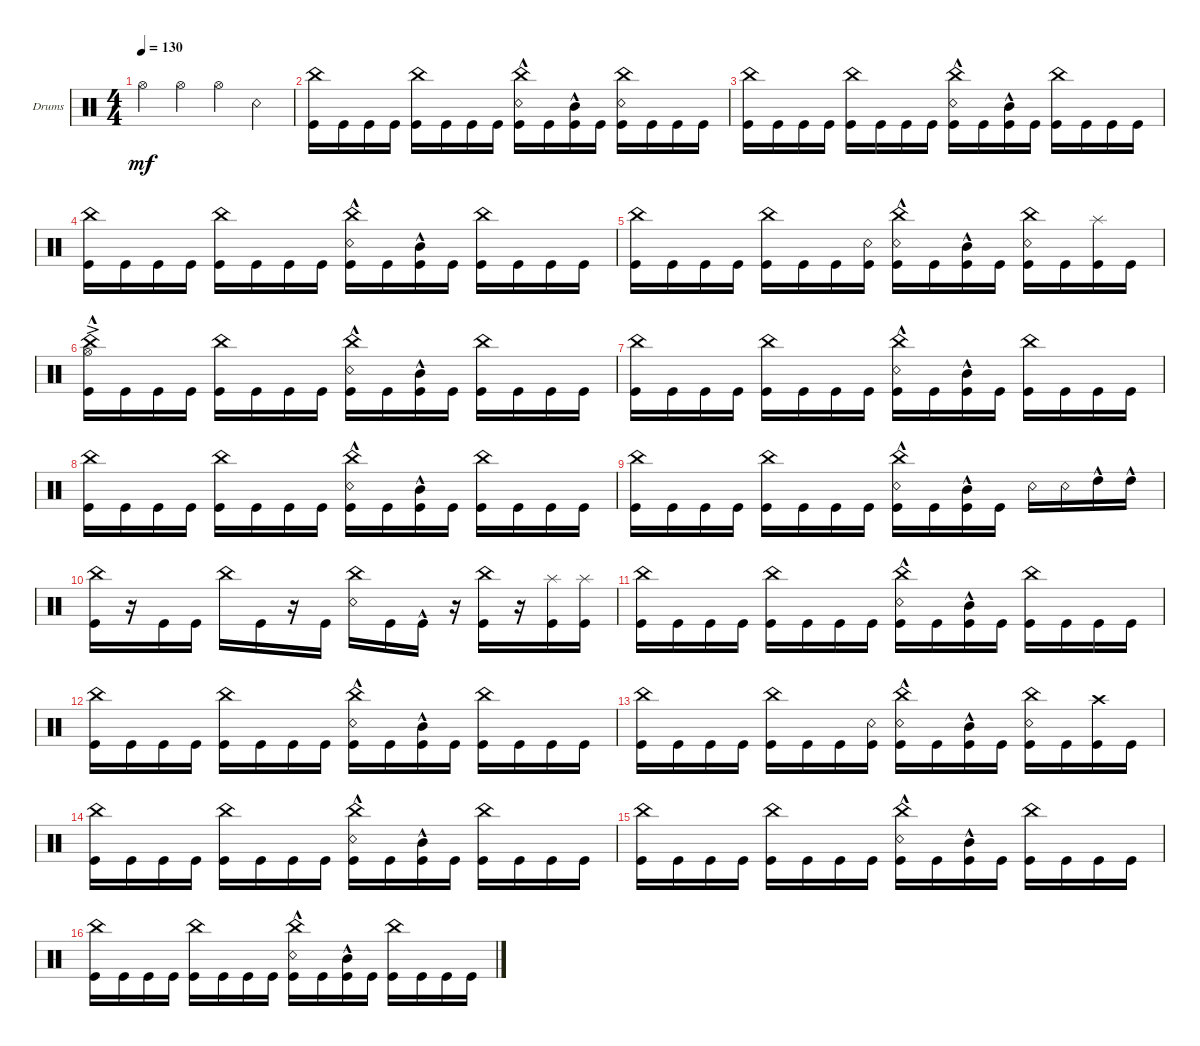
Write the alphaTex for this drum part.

\defaultSystemsLayout 4
\bracketExtendMode groupsimilarinstruments
\firstSystemTrackNameOrientation horizontal
\otherSystemsTrackNameOrientation horizontal
\track ("Drumkit" "Drums") {instrument percussion}
\staff {score}
\articulation defaults
\ts (4 4)
\tempo 130
\clef neutral
\ks c "Hi-Hat (open)".4{dy mf} "Hi-Hat (open)".4 "Hi-Hat (open)".4 "Snare (rim shot)".4
|
("Kick (hit)" "China (hit)").16 "Kick (hit)".16 "Kick (hit)".16 "Kick (hit)".16 ("Kick (hit)" "China (hit)").16 "Kick (hit)".16 "Kick (hit)".16 "Kick (hit)".16 ("Kick (hit)"{hac} "China (hit)" "Snare (rim shot)").16 "Kick (hit)".16 ("Kick (hit)"{hac} "Mid Tom (hit)"{hac}).16 "Kick (hit)".16 ("Kick (hit)" "China (hit)" "Snare (rim shot)").16 "Kick (hit)".16 "Kick (hit)".16 "Kick (hit)".16 |
("Kick (hit)" "China (hit)").16 "Kick (hit)".16 "Kick (hit)".16 "Kick (hit)".16 ("Kick (hit)" "China (hit)").16 "Kick (hit)".16 "Kick (hit)".16 "Kick (hit)".16 ("Kick (hit)"{hac} "China (hit)" "Snare (rim shot)").16 "Kick (hit)".16 ("Kick (hit)"{hac} "Mid Tom (hit)"{hac}).16 "Kick (hit)".16 ("Kick (hit)" "China (hit)").16 "Kick (hit)".16 "Kick (hit)".16 "Kick (hit)".16 |
("Kick (hit)" "China (hit)").16 "Kick (hit)".16 "Kick (hit)".16 "Kick (hit)".16 ("Kick (hit)" "China (hit)").16 "Kick (hit)".16 "Kick (hit)".16 "Kick (hit)".16 ("Kick (hit)"{hac} "Snare (rim shot)" "China (hit)").16 "Kick (hit)".16 ("Kick (hit)"{hac} "Mid Tom (hit)"{hac}).16 "Kick (hit)".16 ("Kick (hit)" "China (hit)").16 "Kick (hit)".16 "Kick (hit)".16 "Kick (hit)".16 |
("Kick (hit)" "China (hit)").16 "Kick (hit)".16 "Kick (hit)".16 "Kick (hit)".16 ("Kick (hit)" "China (hit)").16 "Kick (hit)".16 "Kick (hit)".16 ("Kick (hit)" "Snare (rim shot)").16 ("Kick (hit)"{hac} "Snare (rim shot)" "China (hit)").16 "Kick (hit)".16 ("Kick (hit)"{hac} "Mid Tom (hit)"{hac}).16 "Kick (hit)".16 ("Kick (hit)" "China (hit)" "Snare (rim shot)").16 "Kick (hit)".16 ("Kick (hit)" "Splash (hit)").16 "Kick (hit)".16 |
("Kick (hit)"{ac} "China (hit)" "Hi-Hat (open)"{hac}).16 "Kick (hit)".16 "Kick (hit)".16 "Kick (hit)".16 ("Kick (hit)" "China (hit)").16 "Kick (hit)".16 "Kick (hit)".16 "Kick (hit)".16 ("Kick (hit)"{hac} "Snare (rim shot)" "China (hit)").16 "Kick (hit)".16 ("Kick (hit)"{hac} "Mid Tom (hit)"{hac}).16 "Kick (hit)".16 ("Kick (hit)" "China (hit)").16 "Kick (hit)".16 "Kick (hit)".16 "Kick (hit)".16 |
("Kick (hit)" "China (hit)").16 "Kick (hit)".16 "Kick (hit)".16 "Kick (hit)".16 ("Kick (hit)" "China (hit)").16 "Kick (hit)".16 "Kick (hit)".16 "Kick (hit)".16 ("Kick (hit)"{hac} "Snare (rim shot)" "China (hit)").16 "Kick (hit)".16 ("Kick (hit)"{hac} "Mid Tom (hit)"{hac}).16 "Kick (hit)".16 ("Kick (hit)" "China (hit)").16 "Kick (hit)".16 "Kick (hit)".16 "Kick (hit)".16 |
("Kick (hit)" "China (hit)").16 "Kick (hit)".16 "Kick (hit)".16 "Kick (hit)".16 ("Kick (hit)" "China (hit)").16 "Kick (hit)".16 "Kick (hit)".16 "Kick (hit)".16 ("Kick (hit)"{hac} "Snare (rim shot)" "China (hit)").16 "Kick (hit)".16 ("Kick (hit)"{hac} "Mid Tom (hit)"{hac}).16 "Kick (hit)".16 ("Kick (hit)" "China (hit)").16 "Kick (hit)".16 "Kick (hit)".16 "Kick (hit)".16 |
("Kick (hit)" "China (hit)").16 "Kick (hit)".16 "Kick (hit)".16 "Kick (hit)".16 ("Kick (hit)" "China (hit)").16 "Kick (hit)".16 "Kick (hit)".16 "Kick (hit)".16 ("Kick (hit)"{hac} "Snare (rim shot)" "China (hit)").16 "Kick (hit)".16 ("Kick (hit)"{hac} "Mid Tom (hit)"{hac}).16 "Kick (hit)".16 "Snare (rim shot)".16 "Snare (rim shot)".16 "High Tom (hit)"{hac}.16 "High Tom (hit)"{hac}.16 |
("Kick (hit)" "China (hit)").16 r.16 "Kick (hit)".16 "Kick (hit)".16 "China (hit)".16 "Kick (hit)".16 r.16 "Kick (hit)".16 ("Snare (rim shot)" "China (hit)").16 "Kick (hit)".16 "Kick (hit)"{hac}.16 r.16 ("Kick (hit)" "China (hit)").16 r.16 ("Kick (hit)" "Splash (hit)").16 ("Kick (hit)" "Splash (hit)").16 |
("Kick (hit)" "China (hit)").16 "Kick (hit)".16 "Kick (hit)".16 "Kick (hit)".16 ("Kick (hit)" "China (hit)").16 "Kick (hit)".16 "Kick (hit)".16 "Kick (hit)".16 ("Kick (hit)"{hac} "Snare (rim shot)" "China (hit)").16 "Kick (hit)".16 ("Kick (hit)"{hac} "Mid Tom (hit)"{hac}).16 "Kick (hit)".16 ("Kick (hit)" "China (hit)").16 "Kick (hit)".16 "Kick (hit)".16 "Kick (hit)".16 |
("Kick (hit)" "China (hit)").16 "Kick (hit)".16 "Kick (hit)".16 "Kick (hit)".16 ("Kick (hit)" "China (hit)").16 "Kick (hit)".16 "Kick (hit)".16 "Kick (hit)".16 ("Kick (hit)"{hac} "Snare (rim shot)" "China (hit)").16 "Kick (hit)".16 ("Kick (hit)"{hac} "Mid Tom (hit)"{hac}).16 "Kick (hit)".16 ("Kick (hit)" "China (hit)").16 "Kick (hit)".16 "Kick (hit)".16 "Kick (hit)".16 |
("Kick (hit)" "China (hit)").16 "Kick (hit)".16 "Kick (hit)".16 "Kick (hit)".16 ("Kick (hit)" "China (hit)").16 "Kick (hit)".16 "Kick (hit)".16 ("Kick (hit)" "Snare (rim shot)").16 ("Kick (hit)"{hac} "Snare (rim shot)" "China (hit)").16 "Kick (hit)".16 ("Kick (hit)"{hac} "Mid Tom (hit)"{hac}).16 "Kick (hit)".16 ("Kick (hit)" "China (hit)" "Snare (rim shot)").16 "Kick (hit)".16 ("Kick (hit)" "Crash high (hit)").16 "Kick (hit)".16 |
("Kick (hit)" "China (hit)").16 "Kick (hit)".16 "Kick (hit)".16 "Kick (hit)".16 ("Kick (hit)" "China (hit)").16 "Kick (hit)".16 "Kick (hit)".16 "Kick (hit)".16 ("Kick (hit)"{hac} "Snare (rim shot)" "China (hit)").16 "Kick (hit)".16 ("Kick (hit)"{hac} "Mid Tom (hit)"{hac}).16 "Kick (hit)".16 ("Kick (hit)" "China (hit)").16 "Kick (hit)".16 "Kick (hit)".16 "Kick (hit)".16 |
("Kick (hit)" "China (hit)").16 "Kick (hit)".16 "Kick (hit)".16 "Kick (hit)".16 ("Kick (hit)" "China (hit)").16 "Kick (hit)".16 "Kick (hit)".16 "Kick (hit)".16 ("Kick (hit)"{hac} "Snare (rim shot)" "China (hit)").16 "Kick (hit)".16 ("Kick (hit)"{hac} "Mid Tom (hit)"{hac}).16 "Kick (hit)".16 ("Kick (hit)" "China (hit)").16 "Kick (hit)".16 "Kick (hit)".16 "Kick (hit)".16 |
("Kick (hit)" "China (hit)").16 "Kick (hit)".16 "Kick (hit)".16 "Kick (hit)".16 ("Kick (hit)" "China (hit)").16 "Kick (hit)".16 "Kick (hit)".16 "Kick (hit)".16 ("Kick (hit)"{hac} "Snare (rim shot)" "China (hit)").16 "Kick (hit)".16 ("Kick (hit)"{hac} "Mid Tom (hit)"{hac}).16 "Kick (hit)".16 ("Kick (hit)" "China (hit)").16 "Kick (hit)".16 "Kick (hit)".16 "Kick (hit)".16
